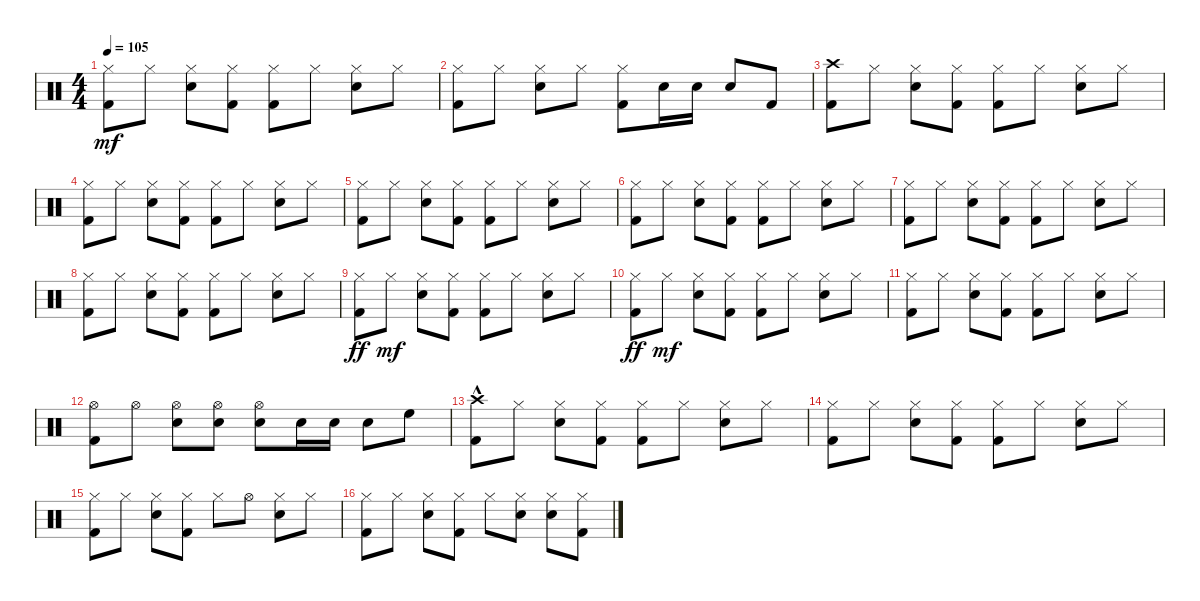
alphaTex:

\track "" {instrument percussion}
\staff {score}
\articulation defaults
\ts (4 4)
\tempo 105
\clef neutral
\ks c
("Kick (hit) 2" "Hi-Hat (closed)").8{dy mf} "Hi-Hat (closed)".8 ("Snare (hit) 2" "Hi-Hat (closed)").8 ("Kick (hit) 2" "Hi-Hat (closed)").8 ("Kick (hit) 2" "Hi-Hat (closed)").8 "Hi-Hat (closed)".8 ("Snare (hit) 2" "Hi-Hat (closed)").8 "Hi-Hat (closed)".8 |
("Kick (hit) 2" "Hi-Hat (closed)").8 "Hi-Hat (closed)".8 ("Snare (hit) 2" "Hi-Hat (closed)").8 "Hi-Hat (closed)".8 ("Kick (hit) 2" "Hi-Hat (closed)").8 "Snare (hit) 2".16 "Snare (hit) 2".16 "Snare (hit) 2".8 "Kick (hit) 2".8 |
("Kick (hit) 2" "Crash high (hit)").8 "Hi-Hat (closed)".8 ("Snare (hit) 2" "Hi-Hat (closed)").8 ("Kick (hit) 2" "Hi-Hat (closed)").8 ("Kick (hit) 2" "Hi-Hat (closed)").8 "Hi-Hat (closed)".8 ("Snare (hit) 2" "Hi-Hat (closed)").8 "Hi-Hat (closed)".8 |
("Kick (hit) 2" "Hi-Hat (closed)").8 "Hi-Hat (closed)".8 ("Snare (hit) 2" "Hi-Hat (closed)").8 ("Kick (hit) 2" "Hi-Hat (closed)").8 ("Kick (hit) 2" "Hi-Hat (closed)").8 "Hi-Hat (closed)".8 ("Snare (hit) 2" "Hi-Hat (closed)").8 "Hi-Hat (closed)".8 |
("Kick (hit) 2" "Hi-Hat (closed)").8 "Hi-Hat (closed)".8 ("Snare (hit) 2" "Hi-Hat (closed)").8 ("Kick (hit) 2" "Hi-Hat (closed)").8 ("Kick (hit) 2" "Hi-Hat (closed)").8 "Hi-Hat (closed)".8 ("Snare (hit) 2" "Hi-Hat (closed)").8 "Hi-Hat (closed)".8 |
("Kick (hit) 2" "Hi-Hat (closed)").8 "Hi-Hat (closed)".8 ("Snare (hit) 2" "Hi-Hat (closed)").8 ("Kick (hit) 2" "Hi-Hat (closed)").8 ("Kick (hit) 2" "Hi-Hat (closed)").8 "Hi-Hat (closed)".8 ("Snare (hit) 2" "Hi-Hat (closed)").8 "Hi-Hat (closed)".8 |
("Kick (hit) 2" "Hi-Hat (closed)").8 "Hi-Hat (closed)".8 ("Snare (hit) 2" "Hi-Hat (closed)").8 ("Kick (hit) 2" "Hi-Hat (closed)").8 ("Kick (hit) 2" "Hi-Hat (closed)").8 "Hi-Hat (closed)".8 ("Snare (hit) 2" "Hi-Hat (closed)").8 "Hi-Hat (closed)".8 |
("Kick (hit) 2" "Hi-Hat (closed)").8 "Hi-Hat (closed)".8 ("Snare (hit) 2" "Hi-Hat (closed)").8 ("Kick (hit) 2" "Hi-Hat (closed)").8 ("Kick (hit) 2" "Hi-Hat (closed)").8 "Hi-Hat (closed)".8 ("Snare (hit) 2" "Hi-Hat (closed)").8 "Hi-Hat (closed)".8 |
("Kick (hit) 2" "Hi-Hat (closed)").8{dy ff} "Hi-Hat (closed)".8{dy mf} ("Snare (hit) 2" "Hi-Hat (closed)").8 ("Kick (hit) 2" "Hi-Hat (closed)").8 ("Kick (hit) 2" "Hi-Hat (closed)").8 "Hi-Hat (closed)".8 ("Snare (hit) 2" "Hi-Hat (closed)").8 "Hi-Hat (closed)".8 |
("Kick (hit) 2" "Hi-Hat (closed)").8{dy ff} "Hi-Hat (closed)".8{dy mf} ("Snare (hit) 2" "Hi-Hat (closed)").8 ("Kick (hit) 2" "Hi-Hat (closed)").8 ("Kick (hit) 2" "Hi-Hat (closed)").8 "Hi-Hat (closed)".8 ("Snare (hit) 2" "Hi-Hat (closed)").8 "Hi-Hat (closed)".8 |
("Kick (hit) 2" "Hi-Hat (closed)").8 "Hi-Hat (closed)".8 ("Snare (hit) 2" "Hi-Hat (closed)").8 ("Kick (hit) 2" "Hi-Hat (closed)").8 ("Kick (hit) 2" "Hi-Hat (closed)").8 "Hi-Hat (closed)".8 ("Snare (hit) 2" "Hi-Hat (closed)").8 "Hi-Hat (closed)".8 |
("Kick (hit) 2" "Hi-Hat (open)").8 "Hi-Hat (open)".8 ("Snare (hit) 2" "Hi-Hat (open)").8 ("Snare (hit) 2" "Hi-Hat (open)").8 ("Snare (hit) 2" "Hi-Hat (open)").8 "Snare (hit) 2".16 "Snare (hit) 2".16 "Snare (hit) 2".8 "High Floor Tom (hit)".8 |
("Kick (hit) 2" "Crash high (hit)"{hac}).8 "Hi-Hat (closed)".8 ("Snare (hit) 2" "Hi-Hat (closed)").8 ("Kick (hit) 2" "Hi-Hat (closed)").8 ("Kick (hit) 2" "Hi-Hat (closed)").8 "Hi-Hat (closed)".8 ("Snare (hit) 2" "Hi-Hat (closed)").8 "Hi-Hat (closed)".8 |
("Kick (hit) 2" "Hi-Hat (closed)").8 "Hi-Hat (closed)".8 ("Snare (hit) 2" "Hi-Hat (closed)").8 ("Kick (hit) 2" "Hi-Hat (closed)").8 ("Kick (hit) 2" "Hi-Hat (closed)").8 "Hi-Hat (closed)".8 ("Snare (hit) 2" "Hi-Hat (closed)").8 "Hi-Hat (closed)".8 |
("Kick (hit) 2" "Hi-Hat (closed)").8 "Hi-Hat (closed)".8 ("Snare (hit) 2" "Hi-Hat (closed)").8 ("Kick (hit) 2" "Hi-Hat (closed)").8 "Hi-Hat (closed)".8 "Hi-Hat (open)".8 ("Snare (hit) 2" "Hi-Hat (closed)").8 "Hi-Hat (closed)".8 |
("Kick (hit) 2" "Hi-Hat (closed)").8 "Hi-Hat (closed)".8 ("Snare (hit) 2" "Hi-Hat (closed)").8 ("Kick (hit) 2" "Hi-Hat (closed)").8 "Hi-Hat (closed)".8 ("Snare (hit) 2" "Hi-Hat (closed)").8 ("Snare (hit) 2" "Hi-Hat (closed)").8 ("Kick (hit) 2" "Hi-Hat (closed)").8
